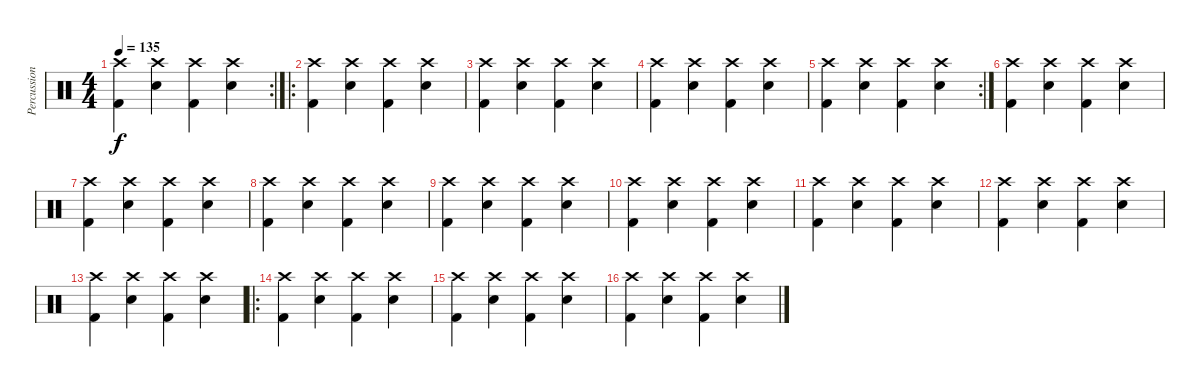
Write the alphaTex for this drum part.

\track ("Percussion" "Percussion") {instrument percussion}
\staff {score}
\articulation defaults
\rc 2
\ts (4 4)
\tempo 135
\clef neutral
\ks c
("Kick (hit) 2" "Crash high (hit)").4{dy f} ("Electric Snare (hit)" "Crash high (hit)").4 ("Kick (hit) 2" "Crash high (hit)").4 ("Electric Snare (hit)" "Crash high (hit)").4 |
\ro
("Kick (hit) 2" "Crash high (hit)").4 ("Electric Snare (hit)" "Crash high (hit)").4 ("Kick (hit) 2" "Crash high (hit)").4 ("Electric Snare (hit)" "Crash high (hit)").4 |
("Kick (hit) 2" "Crash high (hit)").4 ("Electric Snare (hit)" "Crash high (hit)").4 ("Kick (hit) 2" "Crash high (hit)").4 ("Electric Snare (hit)" "Crash high (hit)").4 |
("Kick (hit) 2" "Crash high (hit)").4 ("Electric Snare (hit)" "Crash high (hit)").4 ("Kick (hit) 2" "Crash high (hit)").4 ("Electric Snare (hit)" "Crash high (hit)").4 |
\rc 2
("Kick (hit) 2" "Crash high (hit)").4 ("Electric Snare (hit)" "Crash high (hit)").4 ("Kick (hit) 2" "Crash high (hit)").4 ("Electric Snare (hit)" "Crash high (hit)").4 |
("Kick (hit) 2" "Crash high (hit)").4 ("Electric Snare (hit)" "Crash high (hit)").4 ("Kick (hit) 2" "Crash high (hit)").4 ("Electric Snare (hit)" "Crash high (hit)").4 |
("Kick (hit) 2" "Crash high (hit)").4 ("Electric Snare (hit)" "Crash high (hit)").4 ("Kick (hit) 2" "Crash high (hit)").4 ("Electric Snare (hit)" "Crash high (hit)").4 |
("Kick (hit) 2" "Crash high (hit)").4 ("Electric Snare (hit)" "Crash high (hit)").4 ("Kick (hit) 2" "Crash high (hit)").4 ("Electric Snare (hit)" "Crash high (hit)").4 |
("Kick (hit) 2" "Crash high (hit)").4 ("Electric Snare (hit)" "Crash high (hit)").4 ("Kick (hit) 2" "Crash high (hit)").4 ("Electric Snare (hit)" "Crash high (hit)").4 |
("Kick (hit) 2" "Crash high (hit)").4 ("Electric Snare (hit)" "Crash high (hit)").4 ("Kick (hit) 2" "Crash high (hit)").4 ("Electric Snare (hit)" "Crash high (hit)").4 |
("Kick (hit) 2" "Crash high (hit)").4 ("Electric Snare (hit)" "Crash high (hit)").4 ("Kick (hit) 2" "Crash high (hit)").4 ("Electric Snare (hit)" "Crash high (hit)").4 |
("Kick (hit) 2" "Crash high (hit)").4 ("Electric Snare (hit)" "Crash high (hit)").4 ("Kick (hit) 2" "Crash high (hit)").4 ("Electric Snare (hit)" "Crash high (hit)").4 |
("Kick (hit) 2" "Crash high (hit)").4 ("Electric Snare (hit)" "Crash high (hit)").4 ("Kick (hit) 2" "Crash high (hit)").4 ("Electric Snare (hit)" "Crash high (hit)").4 |
\ro
("Kick (hit) 2" "Crash high (hit)").4 ("Electric Snare (hit)" "Crash high (hit)").4 ("Kick (hit) 2" "Crash high (hit)").4 ("Electric Snare (hit)" "Crash high (hit)").4 |
("Kick (hit) 2" "Crash high (hit)").4 ("Electric Snare (hit)" "Crash high (hit)").4 ("Kick (hit) 2" "Crash high (hit)").4 ("Electric Snare (hit)" "Crash high (hit)").4 |
("Kick (hit) 2" "Crash high (hit)").4 ("Electric Snare (hit)" "Crash high (hit)").4 ("Kick (hit) 2" "Crash high (hit)").4 ("Electric Snare (hit)" "Crash high (hit)").4
